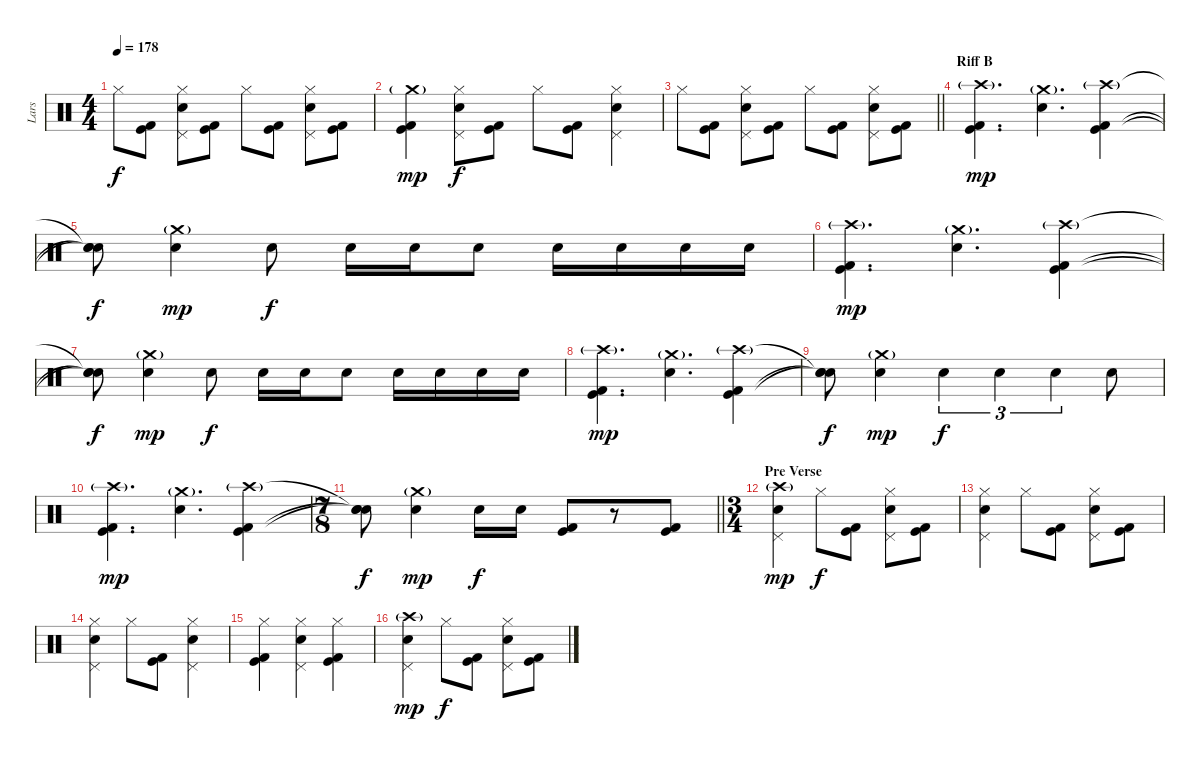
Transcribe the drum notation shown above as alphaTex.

\track ("Lars" "Lars") {instrument percussion}
\staff {score}
\articulation defaults
\ts (4 4)
\tempo 178
\clef neutral
\ks c "Hi-Hat (closed)".8{dy f}
("Kick (hit)" "Kick (hit) 2").8 ("Hi-Hat (closed)" "Pedal Hi-Hat (hit)" "Electric Snare (hit)").8 ("Kick (hit)" "Kick (hit) 2").8 "Hi-Hat (closed)".8 ("Kick (hit)" "Kick (hit) 2").8 ("Hi-Hat (closed)" "Pedal Hi-Hat (hit)" "Electric Snare (hit)").8 ("Kick (hit)" "Kick (hit) 2").8 |
("Crash medium (hit)"{g} "Kick (hit)" "Kick (hit) 2").4{dy mp} ("Hi-Hat (closed)" "Pedal Hi-Hat (hit)" "Electric Snare (hit)").8{dy f} ("Kick (hit)" "Kick (hit) 2").8 "Hi-Hat (closed)".8 ("Kick (hit)" "Kick (hit) 2").8 ("Hi-Hat (closed)" "Pedal Hi-Hat (hit)" "Electric Snare (hit)").4 |
\barLineRight lightlight "Hi-Hat (closed)".8
("Kick (hit)" "Kick (hit) 2").8 ("Hi-Hat (closed)" "Pedal Hi-Hat (hit)" "Electric Snare (hit)").8 ("Kick (hit)" "Kick (hit) 2").8 "Hi-Hat (closed)".8 ("Kick (hit)" "Kick (hit) 2").8 ("Hi-Hat (closed)" "Pedal Hi-Hat (hit)" "Electric Snare (hit)").8 ("Kick (hit)" "Kick (hit) 2").8 |
\section ("" "Riff B")
("Crash high (hit)"{g} "Kick (hit)" "Kick (hit) 2").4{d dy mp} ("Crash medium (hit)"{g} "Electric Snare (hit)").4{d} ("Crash high (hit)"{g} "Kick (hit)" "Kick (hit) 2").4 |
("Snare (hit)"{t} "Snare (hit)"{t} "Snare (hit)"{t}).8{dy f} ("Crash medium (hit)"{g} "Electric Snare (hit)").4{dy mp} "Electric Snare (hit)".8{dy f} "Electric Snare (hit)".16 "Electric Snare (hit)".16 "Electric Snare (hit)".8 "Electric Snare (hit)".16 "Electric Snare (hit)".16 "Electric Snare (hit)".16 "Electric Snare (hit)".16 |
("Crash high (hit)"{g} "Kick (hit)" "Kick (hit) 2").4{d dy mp} ("Crash medium (hit)"{g} "Electric Snare (hit)").4{d} ("Crash high (hit)"{g} "Kick (hit)" "Kick (hit) 2").4 |
("Snare (hit)"{t} "Snare (hit)"{t} "Snare (hit)"{t}).8{dy f} ("Crash medium (hit)"{g} "Electric Snare (hit)").4{dy mp} "Electric Snare (hit)".8{dy f} "Electric Snare (hit)".16 "Electric Snare (hit)".16 "Electric Snare (hit)".8 "Electric Snare (hit)".16 "Electric Snare (hit)".16 "Electric Snare (hit)".16 "Electric Snare (hit)".16 |
("Crash high (hit)"{g} "Kick (hit)" "Kick (hit) 2").4{d dy mp} ("Crash medium (hit)"{g} "Electric Snare (hit)").4{d} ("Crash high (hit)"{g} "Kick (hit)" "Kick (hit) 2").4 |
("Snare (hit)"{t} "Snare (hit)"{t} "Snare (hit)"{t}).8{dy f} ("Crash medium (hit)"{g} "Electric Snare (hit)").4{dy mp} "Electric Snare (hit)".4{tu (3 2) dy f} "Electric Snare (hit)".4{tu (3 2)} "Electric Snare (hit)".4{tu (3 2)} "Electric Snare (hit)".8 |
("Crash high (hit)"{g} "Kick (hit)" "Kick (hit) 2").4{d dy mp} ("Crash medium (hit)"{g} "Electric Snare (hit)").4{d} ("Crash high (hit)"{g} "Kick (hit)" "Kick (hit) 2").4 |
\ts (7 8)
\barLineRight lightlight
("Snare (hit)"{t} "Snare (hit)"{t} "Snare (hit)"{t}).8{dy f} ("Crash medium (hit)"{g} "Electric Snare (hit)").4{dy mp} "Electric Snare (hit)".16{dy f} "Electric Snare (hit)".16 ("Kick (hit)" "Kick (hit) 2").8 r.8 ("Kick (hit)" "Kick (hit) 2").8 |
\ts (3 4)
\section ("" "Pre Verse ")
("Crash high (hit)"{g} "Pedal Hi-Hat (hit)" "Electric Snare (hit)").4{dy mp} "Hi-Hat (closed)".8{dy f} ("Kick (hit)" "Kick (hit) 2").8 ("Hi-Hat (closed)" "Pedal Hi-Hat (hit)" "Electric Snare (hit)").8 ("Kick (hit)" "Kick (hit) 2").8 |
("Hi-Hat (closed)" "Pedal Hi-Hat (hit)" "Electric Snare (hit)").4 "Hi-Hat (closed)".8 ("Kick (hit)" "Kick (hit) 2").8 ("Hi-Hat (closed)" "Pedal Hi-Hat (hit)" "Electric Snare (hit)").8 ("Kick (hit)" "Kick (hit) 2").8 |
("Hi-Hat (closed)" "Pedal Hi-Hat (hit)" "Electric Snare (hit)").4 "Hi-Hat (closed)".8 ("Kick (hit)" "Kick (hit) 2").8 ("Hi-Hat (closed)" "Pedal Hi-Hat (hit)" "Electric Snare (hit)").4 |
("Hi-Hat (closed)" "Kick (hit)" "Kick (hit) 2").4 ("Hi-Hat (closed)" "Pedal Hi-Hat (hit)" "Electric Snare (hit)").4 ("Hi-Hat (closed)" "Kick (hit)" "Kick (hit) 2").4 |
("Crash high (hit)"{g} "Pedal Hi-Hat (hit)" "Electric Snare (hit)").4{dy mp} "Hi-Hat (closed)".8{dy f} ("Kick (hit)" "Kick (hit) 2").8 ("Hi-Hat (closed)" "Pedal Hi-Hat (hit)" "Electric Snare (hit)").8 ("Kick (hit)" "Kick (hit) 2").8
